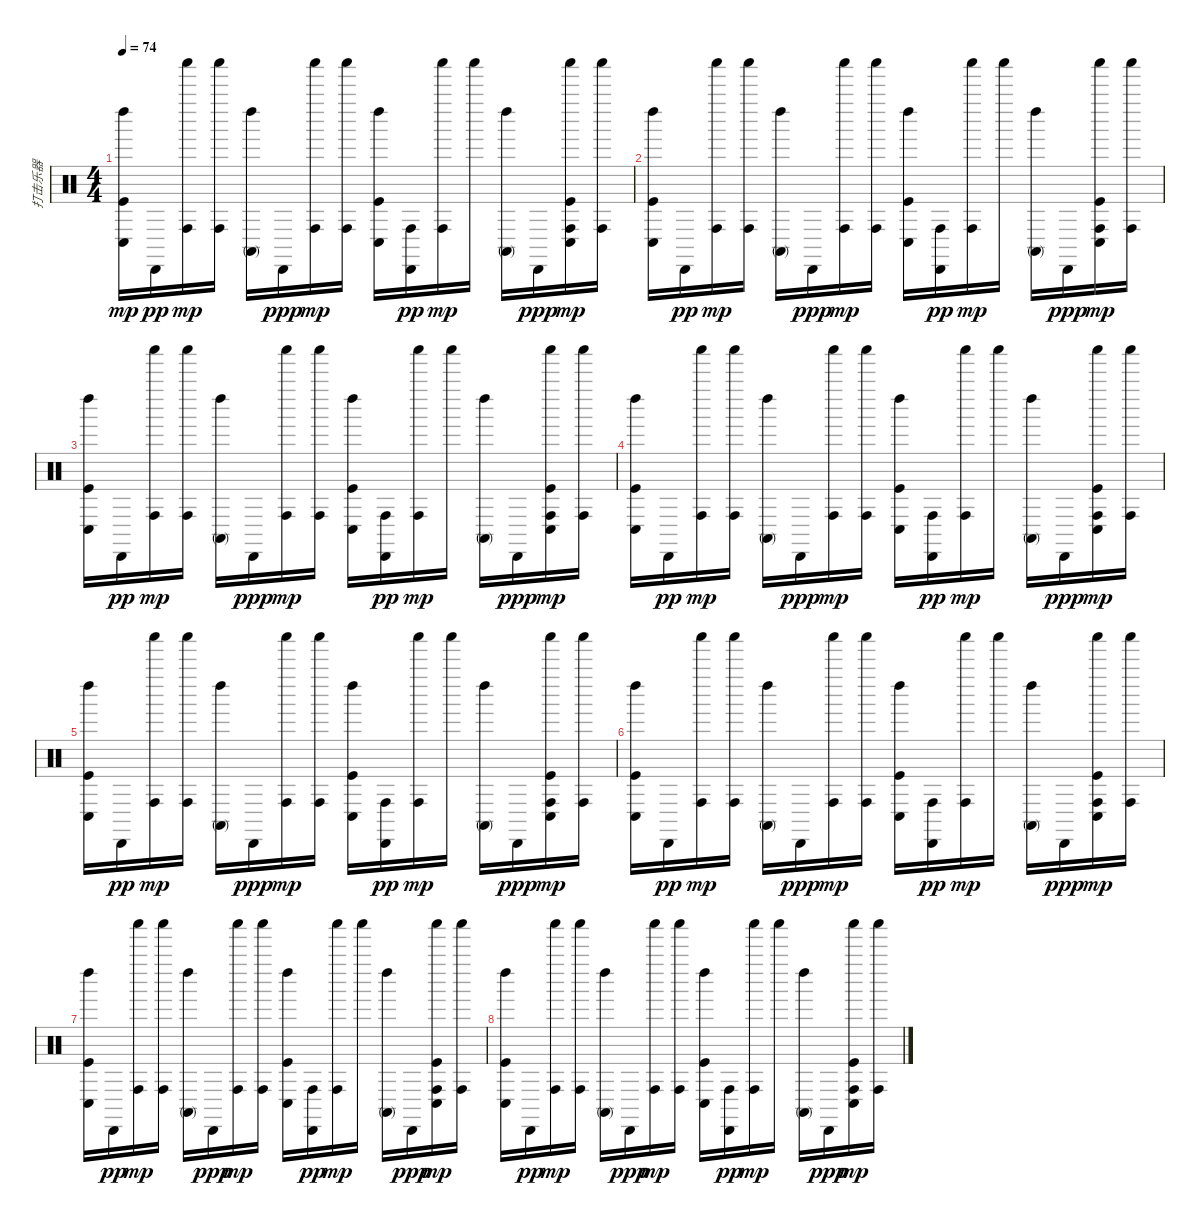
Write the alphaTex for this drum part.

\track ("打击乐器" "打击乐器") {instrument percussion}
\staff {score}
\articulation defaults
\ts (4 4)
\tempo 74
\clef neutral
\ks c
("Kick (hit)" "Conga low (hit)" "Left Maraca (hit)").16{dy mp} "Cabasa (hit)".16{dy pp} ("Conga high (hit)" "Shaker (hit)").16{dy mp} ("Conga high (hit)" "Shaker (hit)").16 ("Conga high (mute)" "Left Maraca (hit)").16 "Cabasa (hit)".16{dy ppp} ("Conga high (hit)" "Shaker (hit)").16{dy mp} ("Conga high (hit)" "Shaker (hit)").16 ("Kick (hit)" "Conga low (hit)" "Left Maraca (hit)").16 ("Conga high (hit)" "Cabasa (hit)").16{dy pp} ("Conga high (hit)" "Shaker (hit)").16{dy mp} "Shaker (hit)".16 ("Conga high (mute)" "Left Maraca (hit)").16 "Cabasa (hit)".16{dy ppp} ("Kick (hit)" "Conga high (hit)" "Conga low (hit)" "Shaker (hit)").16{dy mp} ("Conga high (hit)" "Shaker (hit)").16 |
("Kick (hit)" "Conga low (hit)" "Left Maraca (hit)").16 "Cabasa (hit)".16{dy pp} ("Conga high (hit)" "Shaker (hit)").16{dy mp} ("Conga high (hit)" "Shaker (hit)").16 ("Conga high (mute)" "Left Maraca (hit)").16 "Cabasa (hit)".16{dy ppp} ("Conga high (hit)" "Shaker (hit)").16{dy mp} ("Conga high (hit)" "Shaker (hit)").16 ("Kick (hit)" "Conga low (hit)" "Left Maraca (hit)").16 ("Conga high (hit)" "Cabasa (hit)").16{dy pp} ("Conga high (hit)" "Shaker (hit)").16{dy mp} "Shaker (hit)".16 ("Conga high (mute)" "Left Maraca (hit)").16 "Cabasa (hit)".16{dy ppp} ("Kick (hit)" "Conga high (hit)" "Conga low (hit)" "Shaker (hit)").16{dy mp} ("Conga high (hit)" "Shaker (hit)").16 |
("Kick (hit)" "Conga low (hit)" "Left Maraca (hit)").16 "Cabasa (hit)".16{dy pp} ("Conga high (hit)" "Shaker (hit)").16{dy mp} ("Conga high (hit)" "Shaker (hit)").16 ("Conga high (mute)" "Left Maraca (hit)").16 "Cabasa (hit)".16{dy ppp} ("Conga high (hit)" "Shaker (hit)").16{dy mp} ("Conga high (hit)" "Shaker (hit)").16 ("Kick (hit)" "Conga low (hit)" "Left Maraca (hit)").16 ("Conga high (hit)" "Cabasa (hit)").16{dy pp} ("Conga high (hit)" "Shaker (hit)").16{dy mp} "Shaker (hit)".16 ("Conga high (mute)" "Left Maraca (hit)").16 "Cabasa (hit)".16{dy ppp} ("Kick (hit)" "Conga high (hit)" "Conga low (hit)" "Shaker (hit)").16{dy mp} ("Conga high (hit)" "Shaker (hit)").16 |
("Kick (hit)" "Conga low (hit)" "Left Maraca (hit)").16 "Cabasa (hit)".16{dy pp} ("Conga high (hit)" "Shaker (hit)").16{dy mp} ("Conga high (hit)" "Shaker (hit)").16 ("Conga high (mute)" "Left Maraca (hit)").16 "Cabasa (hit)".16{dy ppp} ("Conga high (hit)" "Shaker (hit)").16{dy mp} ("Conga high (hit)" "Shaker (hit)").16 ("Kick (hit)" "Conga low (hit)" "Left Maraca (hit)").16 ("Conga high (hit)" "Cabasa (hit)").16{dy pp} ("Conga high (hit)" "Shaker (hit)").16{dy mp} "Shaker (hit)".16 ("Conga high (mute)" "Left Maraca (hit)").16 "Cabasa (hit)".16{dy ppp} ("Kick (hit)" "Conga high (hit)" "Conga low (hit)" "Shaker (hit)").16{dy mp} ("Conga high (hit)" "Shaker (hit)").16 |
("Kick (hit)" "Conga low (hit)" "Left Maraca (hit)").16 "Cabasa (hit)".16{dy pp} ("Conga high (hit)" "Shaker (hit)").16{dy mp} ("Conga high (hit)" "Shaker (hit)").16 ("Conga high (mute)" "Left Maraca (hit)").16 "Cabasa (hit)".16{dy ppp} ("Conga high (hit)" "Shaker (hit)").16{dy mp} ("Conga high (hit)" "Shaker (hit)").16 ("Kick (hit)" "Conga low (hit)" "Left Maraca (hit)").16 ("Conga high (hit)" "Cabasa (hit)").16{dy pp} ("Conga high (hit)" "Shaker (hit)").16{dy mp} "Shaker (hit)".16 ("Conga high (mute)" "Left Maraca (hit)").16 "Cabasa (hit)".16{dy ppp} ("Kick (hit)" "Conga high (hit)" "Conga low (hit)" "Shaker (hit)").16{dy mp} ("Conga high (hit)" "Shaker (hit)").16 |
("Kick (hit)" "Conga low (hit)" "Left Maraca (hit)").16 "Cabasa (hit)".16{dy pp} ("Conga high (hit)" "Shaker (hit)").16{dy mp} ("Conga high (hit)" "Shaker (hit)").16 ("Conga high (mute)" "Left Maraca (hit)").16 "Cabasa (hit)".16{dy ppp} ("Conga high (hit)" "Shaker (hit)").16{dy mp} ("Conga high (hit)" "Shaker (hit)").16 ("Kick (hit)" "Conga low (hit)" "Left Maraca (hit)").16 ("Conga high (hit)" "Cabasa (hit)").16{dy pp} ("Conga high (hit)" "Shaker (hit)").16{dy mp} "Shaker (hit)".16 ("Conga high (mute)" "Left Maraca (hit)").16 "Cabasa (hit)".16{dy ppp} ("Kick (hit)" "Conga high (hit)" "Conga low (hit)" "Shaker (hit)").16{dy mp} ("Conga high (hit)" "Shaker (hit)").16 |
("Kick (hit)" "Conga low (hit)" "Left Maraca (hit)").16 "Cabasa (hit)".16{dy pp} ("Conga high (hit)" "Shaker (hit)").16{dy mp} ("Conga high (hit)" "Shaker (hit)").16 ("Conga high (mute)" "Left Maraca (hit)").16 "Cabasa (hit)".16{dy ppp} ("Conga high (hit)" "Shaker (hit)").16{dy mp} ("Conga high (hit)" "Shaker (hit)").16 ("Kick (hit)" "Conga low (hit)" "Left Maraca (hit)").16 ("Conga high (hit)" "Cabasa (hit)").16{dy pp} ("Conga high (hit)" "Shaker (hit)").16{dy mp} "Shaker (hit)".16 ("Conga high (mute)" "Left Maraca (hit)").16 "Cabasa (hit)".16{dy ppp} ("Kick (hit)" "Conga high (hit)" "Conga low (hit)" "Shaker (hit)").16{dy mp} ("Conga high (hit)" "Shaker (hit)").16 |
("Kick (hit)" "Conga low (hit)" "Left Maraca (hit)").16 "Cabasa (hit)".16{dy pp} ("Conga high (hit)" "Shaker (hit)").16{dy mp} ("Conga high (hit)" "Shaker (hit)").16 ("Conga high (mute)" "Left Maraca (hit)").16 "Cabasa (hit)".16{dy ppp} ("Conga high (hit)" "Shaker (hit)").16{dy mp} ("Conga high (hit)" "Shaker (hit)").16 ("Kick (hit)" "Conga low (hit)" "Left Maraca (hit)").16 ("Conga high (hit)" "Cabasa (hit)").16{dy pp} ("Conga high (hit)" "Shaker (hit)").16{dy mp} "Shaker (hit)".16 ("Conga high (mute)" "Left Maraca (hit)").16 "Cabasa (hit)".16{dy ppp} ("Kick (hit)" "Conga high (hit)" "Conga low (hit)" "Shaker (hit)").16{dy mp} ("Conga high (hit)" "Shaker (hit)").16
